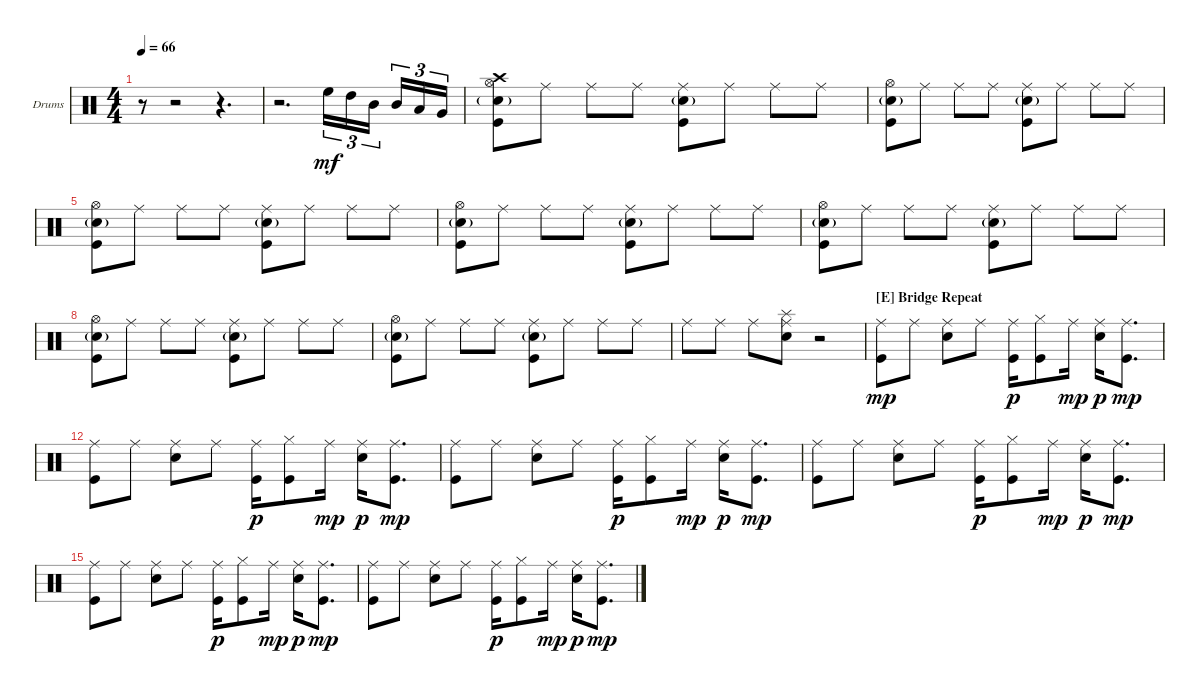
\bracketExtendMode nobrackets
\firstSystemTrackNameOrientation horizontal
\otherSystemsTrackNameOrientation horizontal
\defaultBarNumberDisplay FirstOfSystem
\track ("Drumkit" "Drums") {instrument percussion}
\staff {score}
\articulation defaults
\ts (4 4)
\tempo 66
\clef neutral
\ks c
r.8{dy mf} r.2 r.4{d} |
r.2{d} "High Floor Tom (hit)".16{tu (3 2)} "High Tom (hit)".16{tu (3 2)} "Mid Tom (hit)".16{tu (3 2)} "Mid Tom (hit)".16{tu (3 2)} "Low Tom (hit)".16{tu (3 2)} "Very Low Tom (hit)".16{tu (3 2)} |
("Kick (hit)" "Snare (hit) 2"{g} "Hi-Hat (open)" "Crash high (hit)").8 "Ride (middle)".8 "Ride (middle)".8 "Ride (middle)".8 ("Snare (hit) 2"{g} "Ride (middle)" "Kick (hit)").8 "Ride (middle)".8 "Ride (middle)".8 "Ride (middle)".8 |
("Kick (hit)" "Hi-Hat (open)" "Snare (hit) 2"{g}).8 "Ride (middle)".8 "Ride (middle)".8 "Ride (middle)".8 ("Snare (hit) 2"{g} "Ride (middle)" "Kick (hit)").8 "Ride (middle)".8 "Ride (middle)".8 "Ride (middle)".8 |
("Kick (hit)" "Snare (hit) 2"{g} "Hi-Hat (open)").8 "Ride (middle)".8 "Ride (middle)".8 "Ride (middle)".8 ("Snare (hit) 2"{g} "Ride (middle)" "Kick (hit)").8 "Ride (middle)".8 "Ride (middle)".8 "Ride (middle)".8 |
("Kick (hit)" "Hi-Hat (open)" "Snare (hit) 2"{g}).8 "Ride (middle)".8 "Ride (middle)".8 "Ride (middle)".8 ("Snare (hit) 2"{g} "Ride (middle)" "Kick (hit)").8 "Ride (middle)".8 "Ride (middle)".8 "Ride (middle)".8 |
("Kick (hit)" "Snare (hit) 2"{g} "Hi-Hat (open)").8 "Ride (middle)".8 "Ride (middle)".8 "Ride (middle)".8 ("Snare (hit) 2"{g} "Ride (middle)" "Kick (hit)").8 "Ride (middle)".8 "Ride (middle)".8 "Ride (middle)".8 |
("Kick (hit)" "Hi-Hat (open)" "Snare (hit) 2"{g}).8 "Ride (middle)".8 "Ride (middle)".8 "Ride (middle)".8 ("Snare (hit) 2"{g} "Ride (middle)" "Kick (hit)").8 "Ride (middle)".8 "Ride (middle)".8 "Ride (middle)".8 |
("Kick (hit)" "Snare (hit) 2"{g} "Hi-Hat (open)").8 "Ride (middle)".8 "Ride (middle)".8 "Ride (middle)".8 ("Snare (hit) 2"{g} "Ride (middle)" "Kick (hit)").8 "Ride (middle)".8 "Ride (middle)".8 "Ride (middle)".8 |
"Ride (middle)".8 "Ride (middle)".8 "Ride (middle)".8 ("Ride (middle)" "Splash (hit)" "Snare (hit) 2").8 r.2 |
\section ("E" "Bridge Repeat")
("Ride (middle)" "Kick (hit)").8{dy mp} "Ride (middle)".8 ("Snare (hit) 2" "Ride (middle)").8 "Ride (middle)".8 ("Ride (middle)" "Kick (hit)").16{dy p} ("Hi-Hat (closed)" "Kick (hit)").8 "Ride (middle)".16{dy mp} ("Ride (middle)" "Snare (hit) 2").16{dy p} ("Ride (middle)" "Kick (hit)").8{d dy mp} |
("Ride (middle)" "Kick (hit)").8 "Ride (middle)".8 ("Snare (hit) 2" "Ride (middle)").8 "Ride (middle)".8 ("Ride (middle)" "Kick (hit)").16{dy p} ("Hi-Hat (closed)" "Kick (hit)").8 "Ride (middle)".16{dy mp} ("Ride (middle)" "Snare (hit) 2").16{dy p} ("Ride (middle)" "Kick (hit)").8{d dy mp} |
("Ride (middle)" "Kick (hit)").8 "Ride (middle)".8 ("Snare (hit) 2" "Ride (middle)").8 "Ride (middle)".8 ("Ride (middle)" "Kick (hit)").16{dy p} ("Hi-Hat (closed)" "Kick (hit)").8 "Ride (middle)".16{dy mp} ("Ride (middle)" "Snare (hit) 2").16{dy p} ("Ride (middle)" "Kick (hit)").8{d dy mp} |
("Ride (middle)" "Kick (hit)").8 "Ride (middle)".8 ("Snare (hit) 2" "Ride (middle)").8 "Ride (middle)".8 ("Ride (middle)" "Kick (hit)").16{dy p} ("Hi-Hat (closed)" "Kick (hit)").8 "Ride (middle)".16{dy mp} ("Ride (middle)" "Snare (hit) 2").16{dy p} ("Ride (middle)" "Kick (hit)").8{d dy mp} |
("Ride (middle)" "Kick (hit)").8 "Ride (middle)".8 ("Snare (hit) 2" "Ride (middle)").8 "Ride (middle)".8 ("Ride (middle)" "Kick (hit)").16{dy p} ("Hi-Hat (closed)" "Kick (hit)").8 "Ride (middle)".16{dy mp} ("Ride (middle)" "Snare (hit) 2").16{dy p} ("Ride (middle)" "Kick (hit)").8{d dy mp} |
("Ride (middle)" "Kick (hit)").8 "Ride (middle)".8 ("Snare (hit) 2" "Ride (middle)").8 "Ride (middle)".8 ("Ride (middle)" "Kick (hit)").16{dy p} ("Hi-Hat (closed)" "Kick (hit)").8 "Ride (middle)".16{dy mp} ("Ride (middle)" "Snare (hit) 2").16{dy p} ("Ride (middle)" "Kick (hit)").8{d dy mp}
